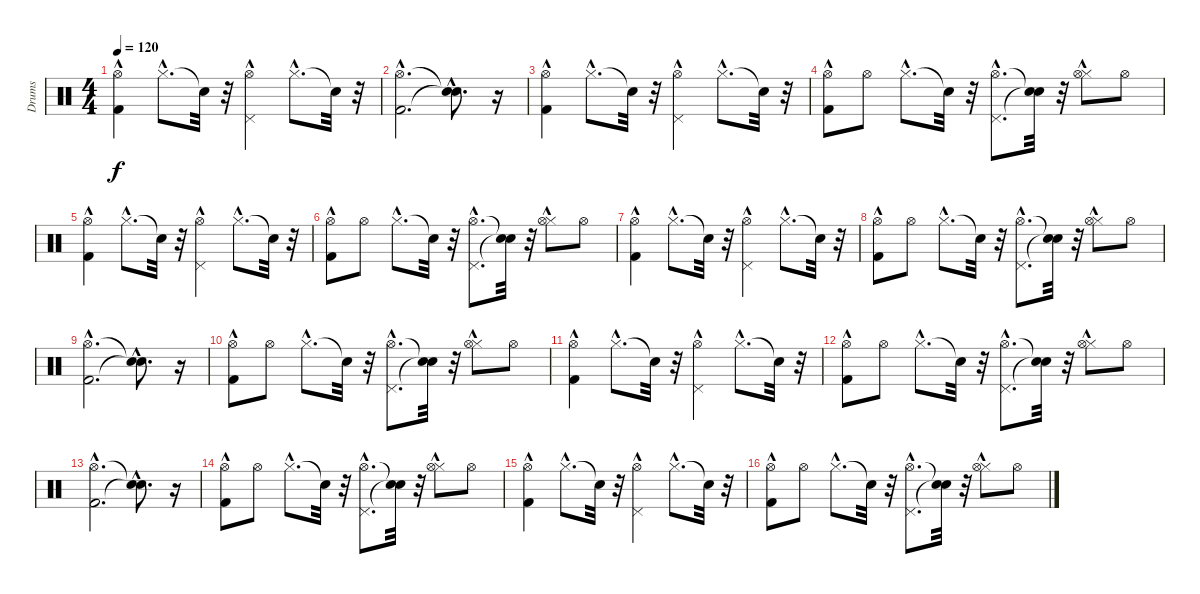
\track ("Drums" "Drums") {instrument percussion}
\staff {score}
\articulation defaults
\ts (4 4)
\tempo 120
\clef neutral
\ks c
("Kick (hit) 2"{hac} "Hi-Hat (open)").4{dy f} "Hi-Hat (closed)"{hac}.8{d} "Snare (hit)"{t}.32 r.32 ("Pedal Hi-Hat (hit)"{hac} "Hi-Hat (open)"{hac}).4 "Hi-Hat (closed)"{hac}.8{d} "Snare (hit)"{t}.32 r.32 |
("Kick (hit) 2"{hac} "Hi-Hat (open)"{hac}).2{d} ("Snare (hit)"{hac t} "Snare (hit)"{hac t}).8{d} r.16 |
("Kick (hit) 2"{hac} "Hi-Hat (open)").4 "Hi-Hat (closed)"{hac}.8{d} "Snare (hit)"{t}.32 r.32 ("Pedal Hi-Hat (hit)"{hac} "Hi-Hat (open)"{hac}).4 "Hi-Hat (closed)"{hac}.8{d} "Snare (hit)"{t}.32 r.32 |
("Kick (hit) 2"{hac} "Hi-Hat (open)").8 "Hi-Hat (open)".8 "Hi-Hat (closed)"{hac}.8{d} "Snare (hit)"{t}.32 r.32 ("Pedal Hi-Hat (hit)"{hac} "Hi-Hat (open)"{hac}).8{d} ("Snare (hit)"{t} "Snare (hit)"{t}).32 r.32 ("Hi-Hat (closed)"{hac} "Hi-Hat (open)").8 "Hi-Hat (open)".8 |
("Kick (hit) 2"{hac} "Hi-Hat (open)").4 "Hi-Hat (closed)"{hac}.8{d} "Snare (hit)"{t}.32 r.32 ("Pedal Hi-Hat (hit)"{hac} "Hi-Hat (open)"{hac}).4 "Hi-Hat (closed)"{hac}.8{d} "Snare (hit)"{t}.32 r.32 |
("Kick (hit) 2"{hac} "Hi-Hat (open)").8 "Hi-Hat (open)".8 "Hi-Hat (closed)"{hac}.8{d} "Snare (hit)"{t}.32 r.32 ("Pedal Hi-Hat (hit)"{hac} "Hi-Hat (open)"{hac}).8{d} ("Snare (hit)"{t} "Snare (hit)"{t}).32 r.32 ("Hi-Hat (closed)"{hac} "Hi-Hat (open)").8 "Hi-Hat (open)".8 |
("Kick (hit) 2"{hac} "Hi-Hat (open)").4 "Hi-Hat (closed)"{hac}.8{d} "Snare (hit)"{t}.32 r.32 ("Pedal Hi-Hat (hit)"{hac} "Hi-Hat (open)"{hac}).4 "Hi-Hat (closed)"{hac}.8{d} "Snare (hit)"{t}.32 r.32 |
("Kick (hit) 2"{hac} "Hi-Hat (open)").8 "Hi-Hat (open)".8 "Hi-Hat (closed)"{hac}.8{d} "Snare (hit)"{t}.32 r.32 ("Pedal Hi-Hat (hit)"{hac} "Hi-Hat (open)"{hac}).8{d} ("Snare (hit)"{t} "Snare (hit)"{t}).32 r.32 ("Hi-Hat (closed)"{hac} "Hi-Hat (open)").8 "Hi-Hat (open)".8 |
("Kick (hit) 2"{hac} "Hi-Hat (open)"{hac}).2{d} ("Snare (hit)"{hac t} "Snare (hit)"{hac t}).8{d} r.16 |
("Kick (hit) 2"{hac} "Hi-Hat (open)").8 "Hi-Hat (open)".8 "Hi-Hat (closed)"{hac}.8{d} "Snare (hit)"{t}.32 r.32 ("Pedal Hi-Hat (hit)"{hac} "Hi-Hat (open)"{hac}).8{d} ("Snare (hit)"{t} "Snare (hit)"{t}).32 r.32 ("Hi-Hat (closed)"{hac} "Hi-Hat (open)").8 "Hi-Hat (open)".8 |
("Kick (hit) 2"{hac} "Hi-Hat (open)").4 "Hi-Hat (closed)"{hac}.8{d} "Snare (hit)"{t}.32 r.32 ("Pedal Hi-Hat (hit)"{hac} "Hi-Hat (open)"{hac}).4 "Hi-Hat (closed)"{hac}.8{d} "Snare (hit)"{t}.32 r.32 |
("Kick (hit) 2"{hac} "Hi-Hat (open)").8 "Hi-Hat (open)".8 "Hi-Hat (closed)"{hac}.8{d} "Snare (hit)"{t}.32 r.32 ("Pedal Hi-Hat (hit)"{hac} "Hi-Hat (open)"{hac}).8{d} ("Snare (hit)"{t} "Snare (hit)"{t}).32 r.32 ("Hi-Hat (closed)"{hac} "Hi-Hat (open)").8 "Hi-Hat (open)".8 |
("Kick (hit) 2"{hac} "Hi-Hat (open)"{hac}).2{d} ("Snare (hit)"{hac t} "Snare (hit)"{hac t}).8{d} r.16 |
("Kick (hit) 2"{hac} "Hi-Hat (open)").8 "Hi-Hat (open)".8 "Hi-Hat (closed)"{hac}.8{d} "Snare (hit)"{t}.32 r.32 ("Pedal Hi-Hat (hit)"{hac} "Hi-Hat (open)"{hac}).8{d} ("Snare (hit)"{t} "Snare (hit)"{t}).32 r.32 ("Hi-Hat (closed)"{hac} "Hi-Hat (open)").8 "Hi-Hat (open)".8 |
("Kick (hit) 2"{hac} "Hi-Hat (open)").4 "Hi-Hat (closed)"{hac}.8{d} "Snare (hit)"{t}.32 r.32 ("Pedal Hi-Hat (hit)"{hac} "Hi-Hat (open)"{hac}).4 "Hi-Hat (closed)"{hac}.8{d} "Snare (hit)"{t}.32 r.32 |
("Kick (hit) 2"{hac} "Hi-Hat (open)").8 "Hi-Hat (open)".8 "Hi-Hat (closed)"{hac}.8{d} "Snare (hit)"{t}.32 r.32 ("Pedal Hi-Hat (hit)"{hac} "Hi-Hat (open)"{hac}).8{d} ("Snare (hit)"{t} "Snare (hit)"{t}).32 r.32 ("Hi-Hat (closed)"{hac} "Hi-Hat (open)").8 "Hi-Hat (open)".8
